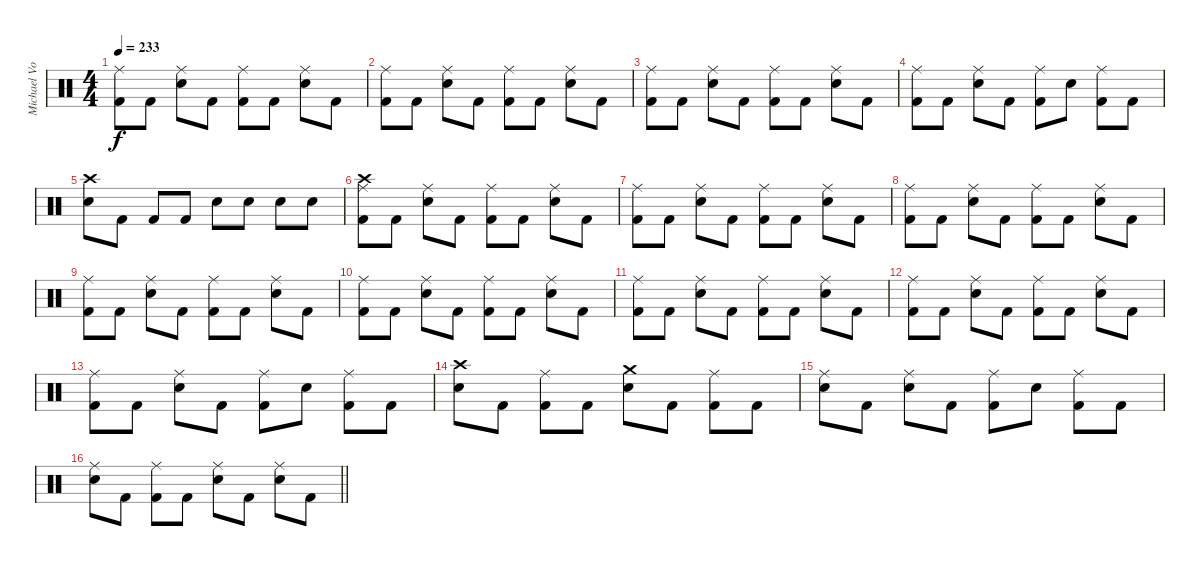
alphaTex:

\track ("Michael Von Knorring" "Michael Vo") {instrument percussion}
\staff {score}
\articulation defaults
\ts (4 4)
\tempo 233
\clef neutral
\ks c
("Ride (middle)" "Kick (hit) 2").8{dy f} "Kick (hit) 2".8 ("Ride (middle)" "Snare (hit) 2").8 "Kick (hit) 2".8 ("Ride (middle)" "Kick (hit) 2").8 "Kick (hit) 2".8 ("Ride (middle)" "Snare (hit) 2").8 "Kick (hit) 2".8 |
("Ride (middle)" "Kick (hit) 2").8 "Kick (hit) 2".8 ("Ride (middle)" "Snare (hit) 2").8 "Kick (hit) 2".8 ("Ride (middle)" "Kick (hit) 2").8 "Kick (hit) 2".8 ("Ride (middle)" "Snare (hit) 2").8 "Kick (hit) 2".8 |
("Ride (middle)" "Kick (hit) 2").8 "Kick (hit) 2".8 ("Ride (middle)" "Snare (hit) 2").8 "Kick (hit) 2".8 ("Ride (middle)" "Kick (hit) 2").8 "Kick (hit) 2".8 ("Ride (middle)" "Snare (hit) 2").8 "Kick (hit) 2".8 |
("Ride (middle)" "Kick (hit) 2").8 "Kick (hit) 2".8 ("Ride (middle)" "Snare (hit) 2").8 "Kick (hit) 2".8 ("Ride (middle)" "Kick (hit) 2").8 "Snare (hit) 2".8 ("Ride (middle)" "Kick (hit) 2").8 "Kick (hit) 2".8 |
("Crash high (hit)" "Snare (hit) 2").8 "Kick (hit) 2".8 "Kick (hit) 2".8 "Kick (hit) 2".8 "Snare (hit) 2".8 "Snare (hit) 2".8 "Snare (hit) 2".8 "Snare (hit) 2".8 |
("Crash high (hit)" "Ride (middle)" "Kick (hit) 2").8 "Kick (hit) 2".8 ("Ride (middle)" "Snare (hit) 2").8 "Kick (hit) 2".8 ("Ride (middle)" "Kick (hit) 2").8 "Kick (hit) 2".8 ("Ride (middle)" "Snare (hit) 2").8 "Kick (hit) 2".8 |
("Ride (middle)" "Kick (hit) 2").8 "Kick (hit) 2".8 ("Ride (middle)" "Snare (hit) 2").8 "Kick (hit) 2".8 ("Ride (middle)" "Kick (hit) 2").8 "Kick (hit) 2".8 ("Ride (middle)" "Snare (hit) 2").8 "Kick (hit) 2".8 |
("Ride (middle)" "Kick (hit) 2").8 "Kick (hit) 2".8 ("Ride (middle)" "Snare (hit) 2").8 "Kick (hit) 2".8 ("Ride (middle)" "Kick (hit) 2").8 "Kick (hit) 2".8 ("Ride (middle)" "Snare (hit) 2").8 "Kick (hit) 2".8 |
("Ride (middle)" "Kick (hit) 2").8 "Kick (hit) 2".8 ("Ride (middle)" "Snare (hit) 2").8 "Kick (hit) 2".8 ("Ride (middle)" "Kick (hit) 2").8 "Kick (hit) 2".8 ("Ride (middle)" "Snare (hit) 2").8 "Kick (hit) 2".8 |
("Ride (middle)" "Kick (hit) 2").8 "Kick (hit) 2".8 ("Ride (middle)" "Snare (hit) 2").8 "Kick (hit) 2".8 ("Ride (middle)" "Kick (hit) 2").8 "Kick (hit) 2".8 ("Ride (middle)" "Snare (hit) 2").8 "Kick (hit) 2".8 |
("Ride (middle)" "Kick (hit) 2").8 "Kick (hit) 2".8 ("Ride (middle)" "Snare (hit) 2").8 "Kick (hit) 2".8 ("Ride (middle)" "Kick (hit) 2").8 "Kick (hit) 2".8 ("Ride (middle)" "Snare (hit) 2").8 "Kick (hit) 2".8 |
("Ride (middle)" "Kick (hit) 2").8 "Kick (hit) 2".8 ("Ride (middle)" "Snare (hit) 2").8 "Kick (hit) 2".8 ("Ride (middle)" "Kick (hit) 2").8 "Kick (hit) 2".8 ("Ride (middle)" "Snare (hit) 2").8 "Kick (hit) 2".8 |
("Ride (middle)" "Kick (hit) 2").8 "Kick (hit) 2".8 ("Ride (middle)" "Snare (hit) 2").8 "Kick (hit) 2".8 ("Ride (middle)" "Kick (hit) 2").8 "Snare (hit) 2".8 ("Ride (middle)" "Kick (hit) 2").8 "Kick (hit) 2".8 |
("Crash high (hit)" "Snare (hit) 2").8 "Kick (hit) 2".8 ("Ride (middle)" "Kick (hit) 2").8 "Kick (hit) 2".8 ("Crash medium (hit)" "Snare (hit) 2").8 "Kick (hit) 2".8 ("Ride (middle)" "Kick (hit) 2").8 "Kick (hit) 2".8 |
("Ride (middle)" "Snare (hit) 2").8 "Kick (hit) 2".8 ("Ride (middle)" "Snare (hit) 2").8 "Kick (hit) 2".8 ("Ride (middle)" "Kick (hit) 2").8 "Snare (hit) 2".8 ("Ride (middle)" "Kick (hit) 2").8 "Kick (hit) 2".8 |
\barLineRight lightlight
("Ride (middle)" "Snare (hit) 2").8 "Kick (hit) 2".8 ("Ride (middle)" "Kick (hit) 2").8 "Kick (hit) 2".8 ("Ride (middle)" "Snare (hit) 2").8 "Kick (hit) 2".8 ("Ride (middle)" "Snare (hit) 2").8 "Kick (hit) 2".8
